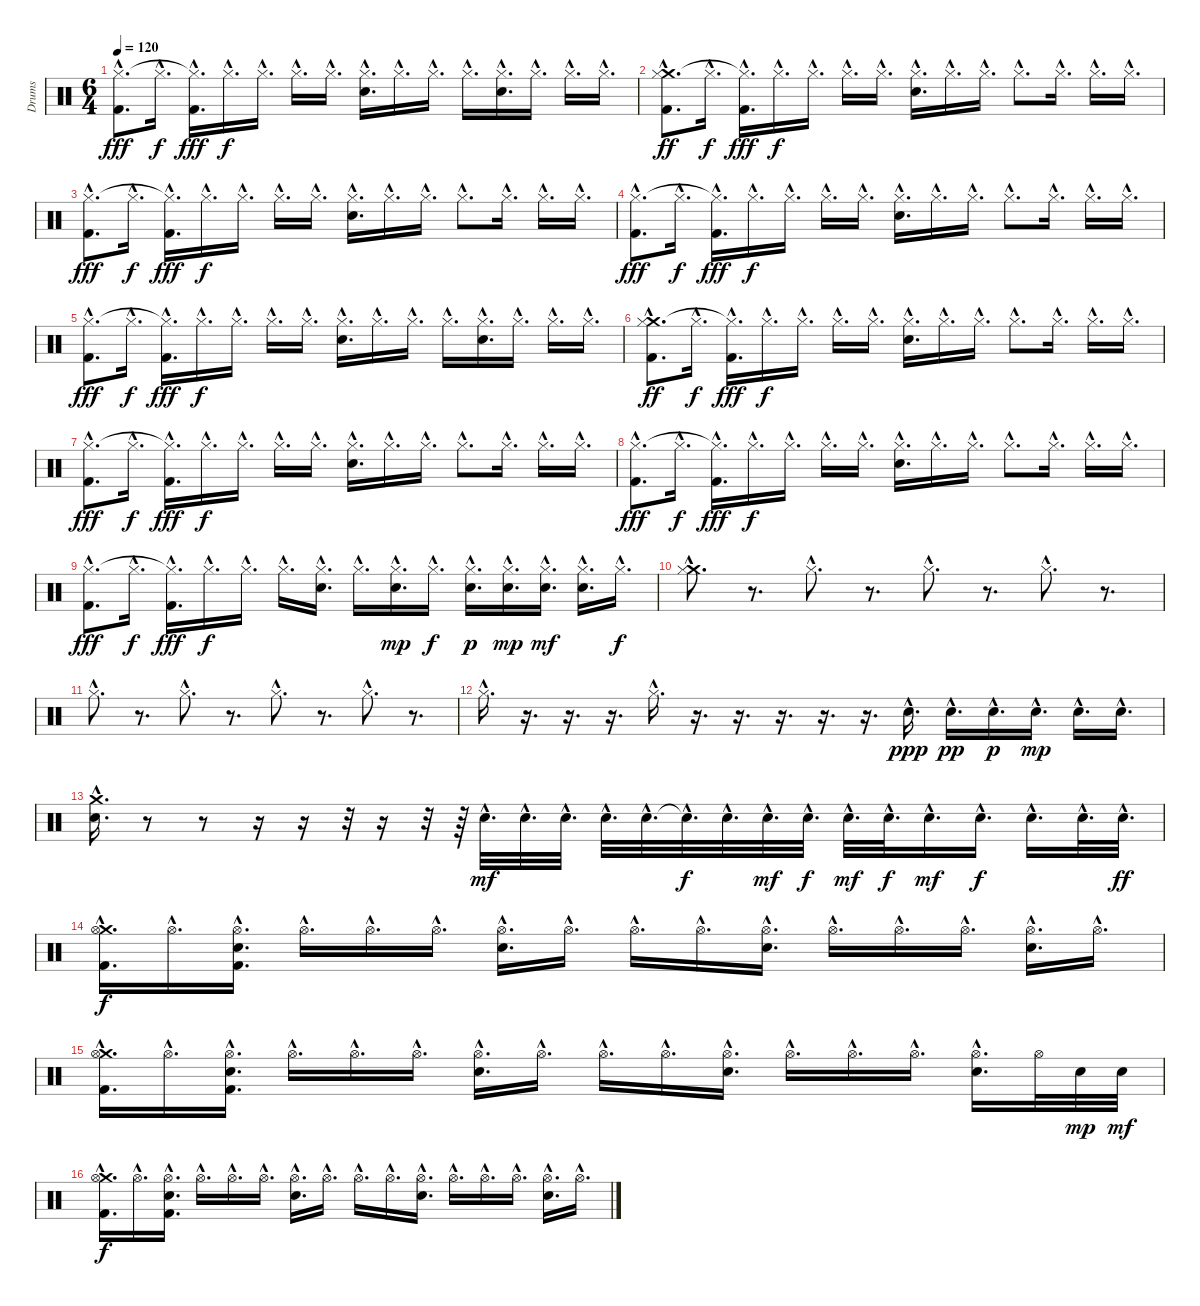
\track ("Drums" "Drums") {instrument percussion}
\staff {score}
\articulation defaults
\ts (6 4)
\tempo 120
\clef neutral
\ks c
("Kick (hit) 2"{hac} "Hi-Hat (closed)"{hac}).8{d dy fff} "Hi-Hat (closed)"{hac}.16{d dy f} ("Kick (hit) 2"{hac} "Hi-Hat (closed)"{hac t}).16{d dy fff} "Hi-Hat (closed)"{hac}.16{d dy f} "Hi-Hat (closed)"{hac}.16{d} "Hi-Hat (closed)"{hac}.16{d} "Hi-Hat (closed)"{hac}.16{d} ("Electric Snare (hit)"{hac} "Hi-Hat (closed)"{hac}).16{d} "Hi-Hat (closed)"{hac}.16{d} "Hi-Hat (closed)"{hac}.16{d} "Hi-Hat (closed)"{hac}.16{d} ("Electric Snare (hit)"{hac} "Hi-Hat (closed)"{hac}).16{d} "Hi-Hat (closed)"{hac}.16{d} "Hi-Hat (closed)"{hac}.16{d} "Hi-Hat (closed)"{hac}.16{d} |
("Kick (hit) 2"{hac} "Crash medium (hit)"{hac} "Hi-Hat (closed)"{hac}).8{d dy ff} "Hi-Hat (closed)"{hac}.16{d dy f} ("Kick (hit) 2"{hac} "Hi-Hat (closed)"{hac t}).16{d dy fff} "Hi-Hat (closed)"{hac}.16{d dy f} "Hi-Hat (closed)"{hac}.16{d} "Hi-Hat (closed)"{hac}.16{d} "Hi-Hat (closed)"{hac}.16{d} ("Electric Snare (hit)"{hac} "Hi-Hat (closed)"{hac}).16{d} "Hi-Hat (closed)"{hac}.16{d} "Hi-Hat (closed)"{hac}.16{d} "Hi-Hat (closed)"{hac}.8{d} "Hi-Hat (closed)"{hac}.16{d} "Hi-Hat (closed)"{hac}.16{d} "Hi-Hat (closed)"{hac}.16{d} |
("Kick (hit) 2"{hac} "Hi-Hat (closed)"{hac}).8{d dy fff} "Hi-Hat (closed)"{hac}.16{d dy f} ("Kick (hit) 2"{hac} "Hi-Hat (closed)"{hac t}).16{d dy fff} "Hi-Hat (closed)"{hac}.16{d dy f} "Hi-Hat (closed)"{hac}.16{d} "Hi-Hat (closed)"{hac}.16{d} "Hi-Hat (closed)"{hac}.16{d} ("Electric Snare (hit)"{hac} "Hi-Hat (closed)"{hac}).16{d} "Hi-Hat (closed)"{hac}.16{d} "Hi-Hat (closed)"{hac}.16{d} "Hi-Hat (closed)"{hac}.8{d} "Hi-Hat (closed)"{hac}.16{d} "Hi-Hat (closed)"{hac}.16{d} "Hi-Hat (closed)"{hac}.16{d} |
("Kick (hit) 2"{hac} "Hi-Hat (closed)"{hac}).8{d dy fff} "Hi-Hat (closed)"{hac}.16{d dy f} ("Kick (hit) 2"{hac} "Hi-Hat (closed)"{hac t}).16{d dy fff} "Hi-Hat (closed)"{hac}.16{d dy f} "Hi-Hat (closed)"{hac}.16{d} "Hi-Hat (closed)"{hac}.16{d} "Hi-Hat (closed)"{hac}.16{d} ("Electric Snare (hit)"{hac} "Hi-Hat (closed)"{hac}).16{d} "Hi-Hat (closed)"{hac}.16{d} "Hi-Hat (closed)"{hac}.16{d} "Hi-Hat (closed)"{hac}.8{d} "Hi-Hat (closed)"{hac}.16{d} "Hi-Hat (closed)"{hac}.16{d} "Hi-Hat (closed)"{hac}.16{d} |
("Kick (hit) 2"{hac} "Hi-Hat (closed)"{hac}).8{d dy fff} "Hi-Hat (closed)"{hac}.16{d dy f} ("Kick (hit) 2"{hac} "Hi-Hat (closed)"{hac t}).16{d dy fff} "Hi-Hat (closed)"{hac}.16{d dy f} "Hi-Hat (closed)"{hac}.16{d} "Hi-Hat (closed)"{hac}.16{d} "Hi-Hat (closed)"{hac}.16{d} ("Electric Snare (hit)"{hac} "Hi-Hat (closed)"{hac}).16{d} "Hi-Hat (closed)"{hac}.16{d} "Hi-Hat (closed)"{hac}.16{d} "Hi-Hat (closed)"{hac}.16{d} ("Electric Snare (hit)"{hac} "Hi-Hat (closed)"{hac}).16{d} "Hi-Hat (closed)"{hac}.16{d} "Hi-Hat (closed)"{hac}.16{d} "Hi-Hat (closed)"{hac}.16{d} |
("Kick (hit) 2"{hac} "Crash medium (hit)"{hac} "Hi-Hat (closed)"{hac}).8{d dy ff} "Hi-Hat (closed)"{hac}.16{d dy f} ("Kick (hit) 2"{hac} "Hi-Hat (closed)"{hac t}).16{d dy fff} "Hi-Hat (closed)"{hac}.16{d dy f} "Hi-Hat (closed)"{hac}.16{d} "Hi-Hat (closed)"{hac}.16{d} "Hi-Hat (closed)"{hac}.16{d} ("Electric Snare (hit)"{hac} "Hi-Hat (closed)"{hac}).16{d} "Hi-Hat (closed)"{hac}.16{d} "Hi-Hat (closed)"{hac}.16{d} "Hi-Hat (closed)"{hac}.8{d} "Hi-Hat (closed)"{hac}.16{d} "Hi-Hat (closed)"{hac}.16{d} "Hi-Hat (closed)"{hac}.16{d} |
("Kick (hit) 2"{hac} "Hi-Hat (closed)"{hac}).8{d dy fff} "Hi-Hat (closed)"{hac}.16{d dy f} ("Kick (hit) 2"{hac} "Hi-Hat (closed)"{hac t}).16{d dy fff} "Hi-Hat (closed)"{hac}.16{d dy f} "Hi-Hat (closed)"{hac}.16{d} "Hi-Hat (closed)"{hac}.16{d} "Hi-Hat (closed)"{hac}.16{d} ("Electric Snare (hit)"{hac} "Hi-Hat (closed)"{hac}).16{d} "Hi-Hat (closed)"{hac}.16{d} "Hi-Hat (closed)"{hac}.16{d} "Hi-Hat (closed)"{hac}.8{d} "Hi-Hat (closed)"{hac}.16{d} "Hi-Hat (closed)"{hac}.16{d} "Hi-Hat (closed)"{hac}.16{d} |
("Kick (hit) 2"{hac} "Hi-Hat (closed)"{hac}).8{d dy fff} "Hi-Hat (closed)"{hac}.16{d dy f} ("Kick (hit) 2"{hac} "Hi-Hat (closed)"{hac t}).16{d dy fff} "Hi-Hat (closed)"{hac}.16{d dy f} "Hi-Hat (closed)"{hac}.16{d} "Hi-Hat (closed)"{hac}.16{d} "Hi-Hat (closed)"{hac}.16{d} ("Electric Snare (hit)"{hac} "Hi-Hat (closed)"{hac}).16{d} "Hi-Hat (closed)"{hac}.16{d} "Hi-Hat (closed)"{hac}.16{d} "Hi-Hat (closed)"{hac}.8{d} "Hi-Hat (closed)"{hac}.16{d} "Hi-Hat (closed)"{hac}.16{d} "Hi-Hat (closed)"{hac}.16{d} |
("Kick (hit) 2"{hac} "Hi-Hat (closed)"{hac}).8{d dy fff} "Hi-Hat (closed)"{hac}.16{d dy f} ("Kick (hit) 2"{hac} "Hi-Hat (closed)"{hac t}).16{d dy fff} "Hi-Hat (closed)"{hac}.16{d dy f} "Hi-Hat (closed)"{hac}.16{d} "Hi-Hat (closed)"{hac}.16{d} ("Electric Snare (hit)"{hac} "Hi-Hat (closed)"{hac}).16{d} "Hi-Hat (closed)"{hac}.16{d} ("Electric Snare (hit)"{hac} "Hi-Hat (closed)"{hac}).16{d dy mp} "Hi-Hat (closed)"{hac}.16{d dy f} ("Electric Snare (hit)"{hac} "Hi-Hat (closed)"{hac}).16{d dy p} ("Electric Snare (hit)"{hac} "Hi-Hat (closed)"{hac}).16{d dy mp} ("Electric Snare (hit)"{hac} "Hi-Hat (closed)"{hac}).16{d dy mf} ("Electric Snare (hit)"{hac} "Hi-Hat (closed)"{hac}).16{d} "Hi-Hat (closed)"{hac}.16{d dy f} |
("Crash medium (hit)"{hac} "Hi-Hat (closed)"{hac}).8{d} r.8{d} "Hi-Hat (closed)"{hac}.8{d} r.8{d} "Hi-Hat (closed)"{hac}.8{d} r.8{d} "Hi-Hat (closed)"{hac}.8{d} r.8{d} |
"Hi-Hat (closed)"{hac}.8{d} r.8{d} "Hi-Hat (closed)"{hac}.8{d} r.8{d} "Hi-Hat (closed)"{hac}.8{d} r.8{d} "Hi-Hat (closed)"{hac}.8{d} r.8{d} |
"Hi-Hat (closed)"{hac}.16{d} r.16{d} r.16{d} r.16{d} "Hi-Hat (closed)"{hac}.16{d} r.16{d} r.16{d} r.16{d} r.16{d} r.16{d} "Snare (hit) 2"{hac}.16{d dy ppp} "Snare (hit) 2"{hac}.16{d dy pp} "Snare (hit) 2"{hac}.16{d dy p} "Snare (hit) 2"{hac}.16{d dy mp} "Snare (hit) 2"{hac}.16{d} "Snare (hit) 2"{hac}.16{d} |
("Crash medium (hit)"{hac} "Snare (hit) 2"{hac}).16{d} r.8 r.8 r.16 r.16 r.32 r.16 r.32 r.64 "Snare (hit) 2"{hac}.32{d dy mf} "Snare (hit) 2"{hac}.32{d} "Snare (hit) 2"{hac}.32{d} "Snare (hit) 2"{hac}.32{d} "Snare (hit) 2"{hac}.32{d} "Snare (hit)"{hac t}.32{d dy f} "Snare (hit) 2"{hac}.32{d} "Snare (hit) 2"{hac}.32{d dy mf} "Snare (hit) 2"{hac}.32{d dy f} "Snare (hit) 2"{hac}.32{d dy mf} "Snare (hit) 2"{hac}.32{d dy f} "Snare (hit) 2"{hac}.16{d dy mf} "Snare (hit) 2"{hac}.16{d dy f} "Snare (hit) 2"{hac}.16{d} "Snare (hit) 2"{hac}.32{d} "Snare (hit) 2"{hac}.32{d dy ff} |
("Crash medium (hit)"{hac} "Hi-Hat (open)"{hac} "Kick (hit) 2"{hac}).16{d dy f} "Hi-Hat (open)"{hac}.16{d} ("Electric Snare (hit)"{hac} "Hi-Hat (open)"{hac} "Kick (hit) 2"{hac}).16{d} "Hi-Hat (open)"{hac}.16{d} "Hi-Hat (open)"{hac}.16{d} "Hi-Hat (open)"{hac}.16{d} ("Electric Snare (hit)"{hac} "Hi-Hat (open)"{hac}).16{d} "Hi-Hat (open)"{hac}.16{d} "Hi-Hat (open)"{hac}.16{d} "Hi-Hat (open)"{hac}.16{d} ("Electric Snare (hit)"{hac} "Hi-Hat (open)"{hac}).16{d} "Hi-Hat (open)"{hac}.16{d} "Hi-Hat (open)"{hac}.16{d} "Hi-Hat (open)"{hac}.16{d} ("Electric Snare (hit)"{hac} "Hi-Hat (open)"{hac}).16{d} "Hi-Hat (open)"{hac}.16{d} |
("Crash medium (hit)"{hac} "Hi-Hat (open)"{hac} "Kick (hit) 2"{hac}).16{d} "Hi-Hat (open)"{hac}.16{d} ("Electric Snare (hit)"{hac} "Hi-Hat (open)"{hac} "Kick (hit) 2"{hac}).16{d} "Hi-Hat (open)"{hac}.16{d} "Hi-Hat (open)"{hac}.16{d} "Hi-Hat (open)"{hac}.16{d} ("Electric Snare (hit)"{hac} "Hi-Hat (open)"{hac}).16{d} "Hi-Hat (open)"{hac}.16{d} "Hi-Hat (open)"{hac}.16{d} "Hi-Hat (open)"{hac}.16{d} ("Electric Snare (hit)"{hac} "Hi-Hat (open)"{hac}).16{d} "Hi-Hat (open)"{hac}.16{d} "Hi-Hat (open)"{hac}.16{d} "Hi-Hat (open)"{hac}.16{d} ("Electric Snare (hit)"{hac} "Hi-Hat (open)"{hac}).16{d} "Hi-Hat (open)".32 "Electric Snare (hit)".32{dy mp} "Electric Snare (hit)".32{dy mf} |
("Crash medium (hit)"{hac} "Hi-Hat (open)"{hac} "Kick (hit) 2"{hac}).16{d dy f} "Hi-Hat (open)"{hac}.16{d} ("Electric Snare (hit)"{hac} "Hi-Hat (open)"{hac} "Kick (hit) 2"{hac}).16{d} "Hi-Hat (open)"{hac}.16{d} "Hi-Hat (open)"{hac}.16{d} "Hi-Hat (open)"{hac}.16{d} ("Electric Snare (hit)"{hac} "Hi-Hat (open)"{hac}).16{d} "Hi-Hat (open)"{hac}.16{d} "Hi-Hat (open)"{hac}.16{d} "Hi-Hat (open)"{hac}.16{d} ("Electric Snare (hit)"{hac} "Hi-Hat (open)"{hac}).16{d} "Hi-Hat (open)"{hac}.16{d} "Hi-Hat (open)"{hac}.16{d} "Hi-Hat (open)"{hac}.16{d} ("Electric Snare (hit)"{hac} "Hi-Hat (open)"{hac}).16{d} "Hi-Hat (open)"{hac}.16{d}
